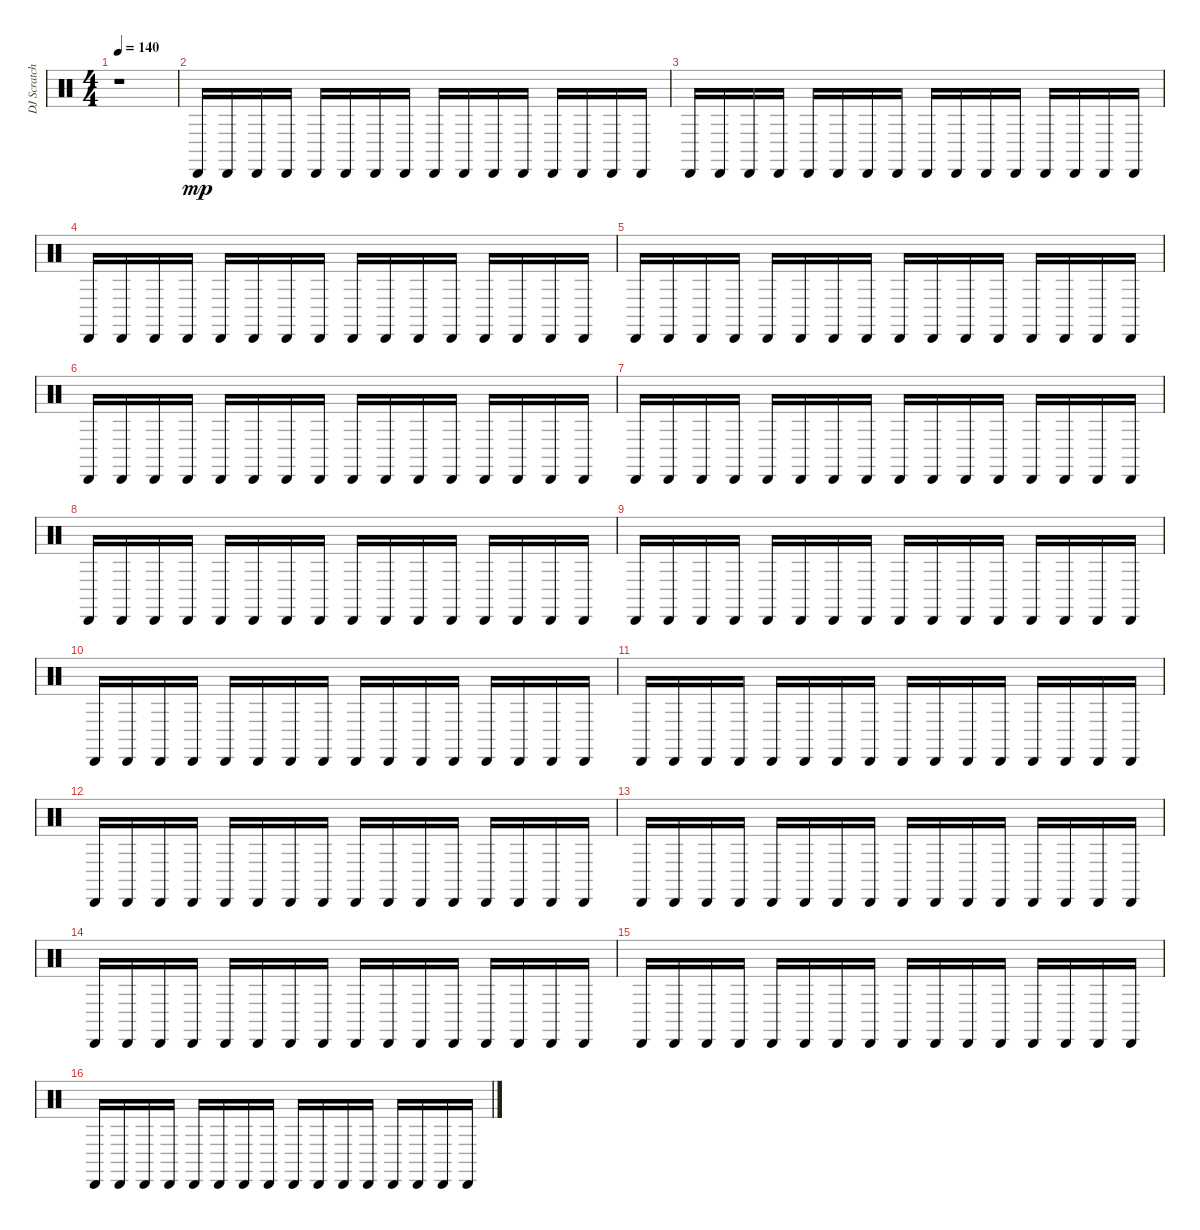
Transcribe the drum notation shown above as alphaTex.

\track ("DJ Scratches/ Percussion" "DJ Scratch") {instrument percussion}
\staff {score}
\articulation defaults
\ts (4 4)
\tempo 140
\clef neutral
\ks c
r.1{dy mp} |
"Cabasa (hit)".16 "Cabasa (hit)".16 "Cabasa (hit)".16 "Cabasa (hit)".16 "Cabasa (hit)".16 "Cabasa (hit)".16 "Cabasa (hit)".16 "Cabasa (hit)".16 "Cabasa (hit)".16 "Cabasa (hit)".16 "Cabasa (hit)".16 "Cabasa (hit)".16 "Cabasa (hit)".16 "Cabasa (hit)".16 "Cabasa (hit)".16 "Cabasa (hit)".16 |
"Cabasa (hit)".16 "Cabasa (hit)".16 "Cabasa (hit)".16 "Cabasa (hit)".16 "Cabasa (hit)".16 "Cabasa (hit)".16 "Cabasa (hit)".16 "Cabasa (hit)".16 "Cabasa (hit)".16 "Cabasa (hit)".16 "Cabasa (hit)".16 "Cabasa (hit)".16 "Cabasa (hit)".16 "Cabasa (hit)".16 "Cabasa (hit)".16 "Cabasa (hit)".16 |
"Cabasa (hit)".16 "Cabasa (hit)".16 "Cabasa (hit)".16 "Cabasa (hit)".16 "Cabasa (hit)".16 "Cabasa (hit)".16 "Cabasa (hit)".16 "Cabasa (hit)".16 "Cabasa (hit)".16 "Cabasa (hit)".16 "Cabasa (hit)".16 "Cabasa (hit)".16 "Cabasa (hit)".16 "Cabasa (hit)".16 "Cabasa (hit)".16 "Cabasa (hit)".16 |
"Cabasa (hit)".16 "Cabasa (hit)".16 "Cabasa (hit)".16 "Cabasa (hit)".16 "Cabasa (hit)".16 "Cabasa (hit)".16 "Cabasa (hit)".16 "Cabasa (hit)".16 "Cabasa (hit)".16 "Cabasa (hit)".16 "Cabasa (hit)".16 "Cabasa (hit)".16 "Cabasa (hit)".16 "Cabasa (hit)".16 "Cabasa (hit)".16 "Cabasa (hit)".16 |
"Cabasa (hit)".16 "Cabasa (hit)".16 "Cabasa (hit)".16 "Cabasa (hit)".16 "Cabasa (hit)".16 "Cabasa (hit)".16 "Cabasa (hit)".16 "Cabasa (hit)".16 "Cabasa (hit)".16 "Cabasa (hit)".16 "Cabasa (hit)".16 "Cabasa (hit)".16 "Cabasa (hit)".16 "Cabasa (hit)".16 "Cabasa (hit)".16 "Cabasa (hit)".16 |
"Cabasa (hit)".16 "Cabasa (hit)".16 "Cabasa (hit)".16 "Cabasa (hit)".16 "Cabasa (hit)".16 "Cabasa (hit)".16 "Cabasa (hit)".16 "Cabasa (hit)".16 "Cabasa (hit)".16 "Cabasa (hit)".16 "Cabasa (hit)".16 "Cabasa (hit)".16 "Cabasa (hit)".16 "Cabasa (hit)".16 "Cabasa (hit)".16 "Cabasa (hit)".16 |
"Cabasa (hit)".16 "Cabasa (hit)".16 "Cabasa (hit)".16 "Cabasa (hit)".16 "Cabasa (hit)".16 "Cabasa (hit)".16 "Cabasa (hit)".16 "Cabasa (hit)".16 "Cabasa (hit)".16 "Cabasa (hit)".16 "Cabasa (hit)".16 "Cabasa (hit)".16 "Cabasa (hit)".16 "Cabasa (hit)".16 "Cabasa (hit)".16 "Cabasa (hit)".16 |
"Cabasa (hit)".16 "Cabasa (hit)".16 "Cabasa (hit)".16 "Cabasa (hit)".16 "Cabasa (hit)".16 "Cabasa (hit)".16 "Cabasa (hit)".16 "Cabasa (hit)".16 "Cabasa (hit)".16 "Cabasa (hit)".16 "Cabasa (hit)".16 "Cabasa (hit)".16 "Cabasa (hit)".16 "Cabasa (hit)".16 "Cabasa (hit)".16 "Cabasa (hit)".16 |
"Cabasa (hit)".16 "Cabasa (hit)".16 "Cabasa (hit)".16 "Cabasa (hit)".16 "Cabasa (hit)".16 "Cabasa (hit)".16 "Cabasa (hit)".16 "Cabasa (hit)".16 "Cabasa (hit)".16 "Cabasa (hit)".16 "Cabasa (hit)".16 "Cabasa (hit)".16 "Cabasa (hit)".16 "Cabasa (hit)".16 "Cabasa (hit)".16 "Cabasa (hit)".16 |
"Cabasa (hit)".16 "Cabasa (hit)".16 "Cabasa (hit)".16 "Cabasa (hit)".16 "Cabasa (hit)".16 "Cabasa (hit)".16 "Cabasa (hit)".16 "Cabasa (hit)".16 "Cabasa (hit)".16 "Cabasa (hit)".16 "Cabasa (hit)".16 "Cabasa (hit)".16 "Cabasa (hit)".16 "Cabasa (hit)".16 "Cabasa (hit)".16 "Cabasa (hit)".16 |
"Cabasa (hit)".16 "Cabasa (hit)".16 "Cabasa (hit)".16 "Cabasa (hit)".16 "Cabasa (hit)".16 "Cabasa (hit)".16 "Cabasa (hit)".16 "Cabasa (hit)".16 "Cabasa (hit)".16 "Cabasa (hit)".16 "Cabasa (hit)".16 "Cabasa (hit)".16 "Cabasa (hit)".16 "Cabasa (hit)".16 "Cabasa (hit)".16 "Cabasa (hit)".16 |
"Cabasa (hit)".16 "Cabasa (hit)".16 "Cabasa (hit)".16 "Cabasa (hit)".16 "Cabasa (hit)".16 "Cabasa (hit)".16 "Cabasa (hit)".16 "Cabasa (hit)".16 "Cabasa (hit)".16 "Cabasa (hit)".16 "Cabasa (hit)".16 "Cabasa (hit)".16 "Cabasa (hit)".16 "Cabasa (hit)".16 "Cabasa (hit)".16 "Cabasa (hit)".16 |
"Cabasa (hit)".16 "Cabasa (hit)".16 "Cabasa (hit)".16 "Cabasa (hit)".16 "Cabasa (hit)".16 "Cabasa (hit)".16 "Cabasa (hit)".16 "Cabasa (hit)".16 "Cabasa (hit)".16 "Cabasa (hit)".16 "Cabasa (hit)".16 "Cabasa (hit)".16 "Cabasa (hit)".16 "Cabasa (hit)".16 "Cabasa (hit)".16 "Cabasa (hit)".16 |
"Cabasa (hit)".16 "Cabasa (hit)".16 "Cabasa (hit)".16 "Cabasa (hit)".16 "Cabasa (hit)".16 "Cabasa (hit)".16 "Cabasa (hit)".16 "Cabasa (hit)".16 "Cabasa (hit)".16 "Cabasa (hit)".16 "Cabasa (hit)".16 "Cabasa (hit)".16 "Cabasa (hit)".16 "Cabasa (hit)".16 "Cabasa (hit)".16 "Cabasa (hit)".16 |
"Cabasa (hit)".16 "Cabasa (hit)".16 "Cabasa (hit)".16 "Cabasa (hit)".16 "Cabasa (hit)".16 "Cabasa (hit)".16 "Cabasa (hit)".16 "Cabasa (hit)".16 "Cabasa (hit)".16 "Cabasa (hit)".16 "Cabasa (hit)".16 "Cabasa (hit)".16 "Cabasa (hit)".16 "Cabasa (hit)".16 "Cabasa (hit)".16 "Cabasa (hit)".16
